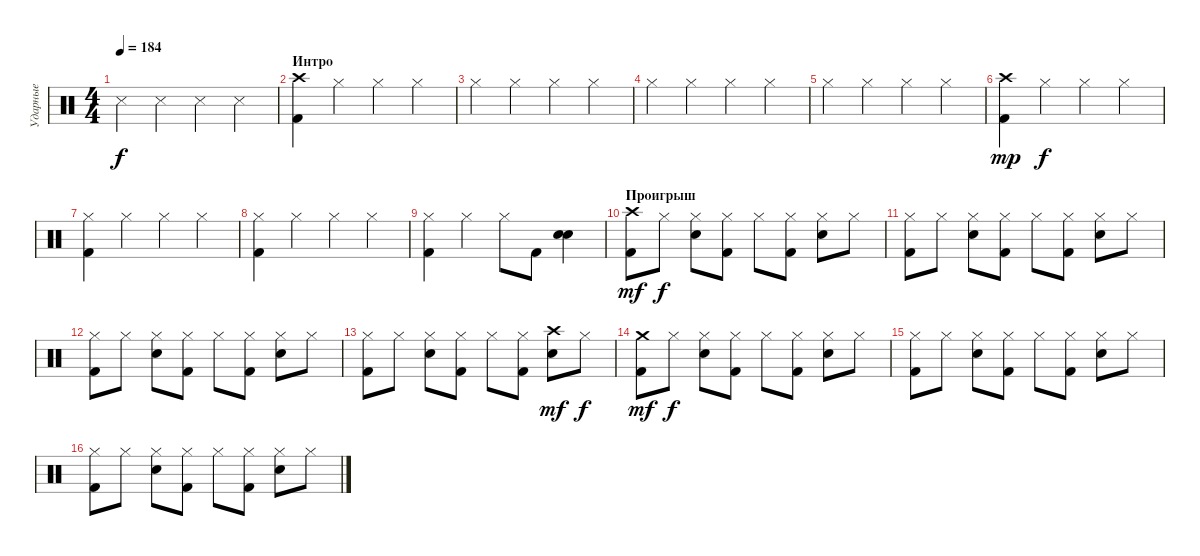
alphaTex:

\track ("Ударные" "Ударные") {instrument percussion}
\staff {score}
\articulation defaults
\ts (4 4)
\tempo 184
\clef neutral
\ks c "Snare (side stick) 3".4{dy f} "Snare (side stick) 3".4 "Snare (side stick) 3".4 "Snare (side stick) 3".4
|
\section ("" "Интро")
("Kick (hit) 2" "Crash high (hit)").4 "Hi-Hat (closed)".4 "Hi-Hat (closed)".4 "Hi-Hat (closed)".4 |
"Hi-Hat (closed)".4 "Hi-Hat (closed)".4 "Hi-Hat (closed)".4 "Hi-Hat (closed)".4 |
"Hi-Hat (closed)".4 "Hi-Hat (closed)".4 "Hi-Hat (closed)".4 "Hi-Hat (closed)".4 |
"Hi-Hat (closed)".4 "Hi-Hat (closed)".4 "Hi-Hat (closed)".4 "Hi-Hat (closed)".4 |
("Kick (hit) 2" "Crash high (hit)").4{dy mp} "Hi-Hat (closed)".4{dy f} "Hi-Hat (closed)".4 "Hi-Hat (closed)".4 |
("Kick (hit) 2" "Hi-Hat (closed)").4 "Hi-Hat (closed)".4 "Hi-Hat (closed)".4 "Hi-Hat (closed)".4 |
("Kick (hit) 2" "Hi-Hat (closed)").4 "Hi-Hat (closed)".4 "Hi-Hat (closed)".4 "Hi-Hat (closed)".4 |
("Kick (hit) 2" "Hi-Hat (closed)").4 "Hi-Hat (closed)".4 "Hi-Hat (closed)".8 "Kick (hit) 2".8 ("Snare (hit) 2" "Snare (hit) 2").4 |
\section ("" "Проигрыш")
("Crash high (hit)" "Kick (hit) 2").8{dy mf} "Hi-Hat (closed)".8{dy f} ("Hi-Hat (closed)" "Snare (hit) 2").8 ("Hi-Hat (closed)" "Kick (hit) 2").8 "Hi-Hat (closed)".8 ("Hi-Hat (closed)" "Kick (hit) 2").8 ("Hi-Hat (closed)" "Snare (hit) 2").8 "Hi-Hat (closed)".8 |
("Hi-Hat (closed)" "Kick (hit) 2").8 "Hi-Hat (closed)".8 ("Hi-Hat (closed)" "Snare (hit) 2").8 ("Hi-Hat (closed)" "Kick (hit) 2").8 "Hi-Hat (closed)".8 ("Hi-Hat (closed)" "Kick (hit) 2").8 ("Hi-Hat (closed)" "Snare (hit) 2").8 "Hi-Hat (closed)".8 |
("Hi-Hat (closed)" "Kick (hit) 2").8 "Hi-Hat (closed)".8 ("Hi-Hat (closed)" "Snare (hit) 2").8 ("Hi-Hat (closed)" "Kick (hit) 2").8 "Hi-Hat (closed)".8 ("Hi-Hat (closed)" "Kick (hit) 2").8 ("Hi-Hat (closed)" "Snare (hit) 2").8 "Hi-Hat (closed)".8 |
("Hi-Hat (closed)" "Kick (hit) 2").8 "Hi-Hat (closed)".8 ("Hi-Hat (closed)" "Snare (hit) 2").8 ("Hi-Hat (closed)" "Kick (hit) 2").8 "Hi-Hat (closed)".8 ("Hi-Hat (closed)" "Kick (hit) 2").8 ("Crash high (hit)" "Snare (hit) 2").8{dy mf} "Hi-Hat (closed)".8{dy f} |
("Crash medium (hit)" "Kick (hit) 2").8{dy mf} "Hi-Hat (closed)".8{dy f} ("Hi-Hat (closed)" "Snare (hit) 2").8 ("Hi-Hat (closed)" "Kick (hit) 2").8 "Hi-Hat (closed)".8 ("Hi-Hat (closed)" "Kick (hit) 2").8 ("Hi-Hat (closed)" "Snare (hit) 2").8 "Hi-Hat (closed)".8 |
("Hi-Hat (closed)" "Kick (hit) 2").8 "Hi-Hat (closed)".8 ("Hi-Hat (closed)" "Snare (hit) 2").8 ("Hi-Hat (closed)" "Kick (hit) 2").8 "Hi-Hat (closed)".8 ("Hi-Hat (closed)" "Kick (hit) 2").8 ("Hi-Hat (closed)" "Snare (hit) 2").8 "Hi-Hat (closed)".8 |
("Hi-Hat (closed)" "Kick (hit) 2").8 "Hi-Hat (closed)".8 ("Hi-Hat (closed)" "Snare (hit) 2").8 ("Hi-Hat (closed)" "Kick (hit) 2").8 "Hi-Hat (closed)".8 ("Hi-Hat (closed)" "Kick (hit) 2").8 ("Hi-Hat (closed)" "Snare (hit) 2").8 "Hi-Hat (closed)".8
